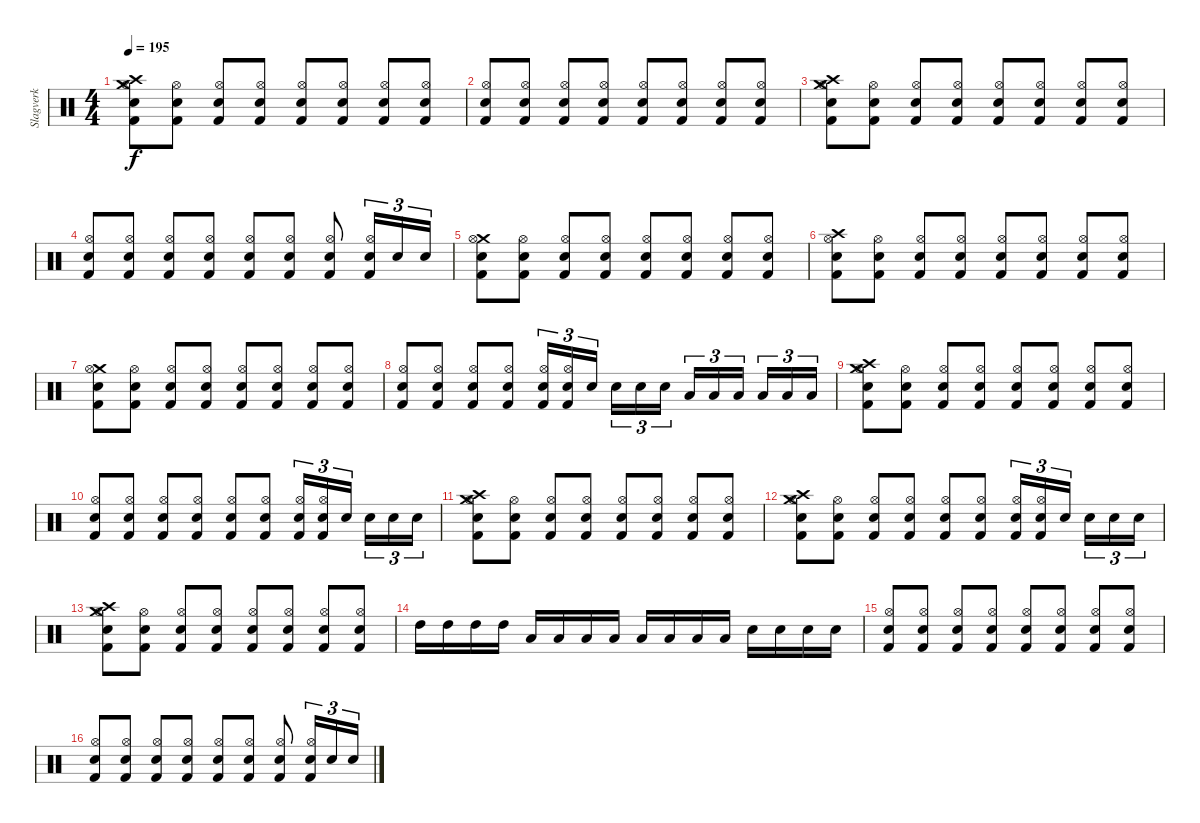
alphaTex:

\track ("Slagverk" "Slagverk") {instrument percussion}
\staff {score}
\articulation defaults
\ts (4 4)
\tempo 195
\clef neutral
\ks c
("Crash medium (hit)" "Crash high (hit)" "Electric Snare (hit)" "Hi-Hat (open)" "Kick (hit) 2").8{dy f} ("Electric Snare (hit)" "Hi-Hat (open)" "Kick (hit) 2").8 ("Electric Snare (hit)" "Hi-Hat (open)" "Kick (hit) 2").8 ("Electric Snare (hit)" "Hi-Hat (open)" "Kick (hit) 2").8 ("Electric Snare (hit)" "Hi-Hat (open)" "Kick (hit) 2").8 ("Electric Snare (hit)" "Hi-Hat (open)" "Kick (hit) 2").8 ("Electric Snare (hit)" "Hi-Hat (open)" "Kick (hit) 2").8 ("Electric Snare (hit)" "Hi-Hat (open)" "Kick (hit) 2").8 |
("Electric Snare (hit)" "Hi-Hat (open)" "Kick (hit) 2").8 ("Electric Snare (hit)" "Hi-Hat (open)" "Kick (hit) 2").8 ("Electric Snare (hit)" "Hi-Hat (open)" "Kick (hit) 2").8 ("Electric Snare (hit)" "Hi-Hat (open)" "Kick (hit) 2").8 ("Electric Snare (hit)" "Hi-Hat (open)" "Kick (hit) 2").8 ("Electric Snare (hit)" "Hi-Hat (open)" "Kick (hit) 2").8 ("Electric Snare (hit)" "Hi-Hat (open)" "Kick (hit) 2").8 ("Electric Snare (hit)" "Hi-Hat (open)" "Kick (hit) 2").8 |
("Crash medium (hit)" "Crash high (hit)" "Electric Snare (hit)" "Hi-Hat (open)" "Kick (hit) 2").8 ("Electric Snare (hit)" "Hi-Hat (open)" "Kick (hit) 2").8 ("Electric Snare (hit)" "Hi-Hat (open)" "Kick (hit) 2").8 ("Electric Snare (hit)" "Hi-Hat (open)" "Kick (hit) 2").8 ("Electric Snare (hit)" "Hi-Hat (open)" "Kick (hit) 2").8 ("Electric Snare (hit)" "Hi-Hat (open)" "Kick (hit) 2").8 ("Electric Snare (hit)" "Hi-Hat (open)" "Kick (hit) 2").8 ("Electric Snare (hit)" "Hi-Hat (open)" "Kick (hit) 2").8 |
("Electric Snare (hit)" "Hi-Hat (open)" "Kick (hit) 2").8 ("Electric Snare (hit)" "Hi-Hat (open)" "Kick (hit) 2").8 ("Electric Snare (hit)" "Hi-Hat (open)" "Kick (hit) 2").8 ("Electric Snare (hit)" "Hi-Hat (open)" "Kick (hit) 2").8 ("Electric Snare (hit)" "Hi-Hat (open)" "Kick (hit) 2").8 ("Electric Snare (hit)" "Hi-Hat (open)" "Kick (hit) 2").8 ("Electric Snare (hit)" "Hi-Hat (open)" "Kick (hit) 2").8 ("Electric Snare (hit)" "Hi-Hat (open)" "Kick (hit) 2").16{tu (3 2)} "Electric Snare (hit)".16{tu (3 2)} "Electric Snare (hit)".16{tu (3 2)} |
("Crash medium (hit)" "Electric Snare (hit)" "Hi-Hat (open)" "Kick (hit) 2").8 ("Electric Snare (hit)" "Hi-Hat (open)" "Kick (hit) 2").8 ("Electric Snare (hit)" "Hi-Hat (open)" "Kick (hit) 2").8 ("Electric Snare (hit)" "Hi-Hat (open)" "Kick (hit) 2").8 ("Electric Snare (hit)" "Hi-Hat (open)" "Kick (hit) 2").8 ("Electric Snare (hit)" "Hi-Hat (open)" "Kick (hit) 2").8 ("Electric Snare (hit)" "Hi-Hat (open)" "Kick (hit) 2").8 ("Electric Snare (hit)" "Hi-Hat (open)" "Kick (hit) 2").8 |
("Crash high (hit)" "Electric Snare (hit)" "Hi-Hat (open)" "Kick (hit) 2").8 ("Electric Snare (hit)" "Hi-Hat (open)" "Kick (hit) 2").8 ("Electric Snare (hit)" "Hi-Hat (open)" "Kick (hit) 2").8 ("Electric Snare (hit)" "Hi-Hat (open)" "Kick (hit) 2").8 ("Electric Snare (hit)" "Hi-Hat (open)" "Kick (hit) 2").8 ("Electric Snare (hit)" "Hi-Hat (open)" "Kick (hit) 2").8 ("Electric Snare (hit)" "Hi-Hat (open)" "Kick (hit) 2").8 ("Electric Snare (hit)" "Hi-Hat (open)" "Kick (hit) 2").8 |
("Crash medium (hit)" "Electric Snare (hit)" "Hi-Hat (open)" "Kick (hit) 2").8 ("Electric Snare (hit)" "Hi-Hat (open)" "Kick (hit) 2").8 ("Electric Snare (hit)" "Hi-Hat (open)" "Kick (hit) 2").8 ("Electric Snare (hit)" "Hi-Hat (open)" "Kick (hit) 2").8 ("Electric Snare (hit)" "Hi-Hat (open)" "Kick (hit) 2").8 ("Electric Snare (hit)" "Hi-Hat (open)" "Kick (hit) 2").8 ("Electric Snare (hit)" "Hi-Hat (open)" "Kick (hit) 2").8 ("Electric Snare (hit)" "Hi-Hat (open)" "Kick (hit) 2").8 |
("Electric Snare (hit)" "Hi-Hat (open)" "Kick (hit) 2").8 ("Electric Snare (hit)" "Hi-Hat (open)" "Kick (hit) 2").8 ("Electric Snare (hit)" "Hi-Hat (open)" "Kick (hit) 2").8 ("Electric Snare (hit)" "Hi-Hat (open)" "Kick (hit) 2").8 ("Electric Snare (hit)" "Hi-Hat (open)" "Kick (hit) 2").16{tu (3 2)} ("Electric Snare (hit)" "Hi-Hat (open)" "Kick (hit) 2").16{tu (3 2)} "Electric Snare (hit)".16{tu (3 2)} "Electric Snare (hit)".16{tu (3 2)} "Electric Snare (hit)".16{tu (3 2)} "Electric Snare (hit)".16{tu (3 2)} "Low Tom (hit)".16{tu (3 2)} "Low Tom (hit)".16{tu (3 2)} "Low Tom (hit)".16{tu (3 2)} "Low Tom (hit)".16{tu (3 2)} "Low Tom (hit)".16{tu (3 2)} "Low Tom (hit)".16{tu (3 2)} |
("Crash medium (hit)" "Crash high (hit)" "Electric Snare (hit)" "Hi-Hat (open)" "Kick (hit) 2").8 ("Electric Snare (hit)" "Hi-Hat (open)" "Kick (hit) 2").8 ("Electric Snare (hit)" "Hi-Hat (open)" "Kick (hit) 2").8 ("Electric Snare (hit)" "Hi-Hat (open)" "Kick (hit) 2").8 ("Electric Snare (hit)" "Hi-Hat (open)" "Kick (hit) 2").8 ("Electric Snare (hit)" "Hi-Hat (open)" "Kick (hit) 2").8 ("Electric Snare (hit)" "Hi-Hat (open)" "Kick (hit) 2").8 ("Electric Snare (hit)" "Hi-Hat (open)" "Kick (hit) 2").8 |
("Electric Snare (hit)" "Hi-Hat (open)" "Kick (hit) 2").8 ("Electric Snare (hit)" "Hi-Hat (open)" "Kick (hit) 2").8 ("Electric Snare (hit)" "Hi-Hat (open)" "Kick (hit) 2").8 ("Electric Snare (hit)" "Hi-Hat (open)" "Kick (hit) 2").8 ("Electric Snare (hit)" "Hi-Hat (open)" "Kick (hit) 2").8 ("Electric Snare (hit)" "Hi-Hat (open)" "Kick (hit) 2").8 ("Electric Snare (hit)" "Hi-Hat (open)" "Kick (hit) 2").16{tu (3 2)} ("Electric Snare (hit)" "Hi-Hat (open)" "Kick (hit) 2").16{tu (3 2)} "Electric Snare (hit)".16{tu (3 2)} "Electric Snare (hit)".16{tu (3 2)} "Electric Snare (hit)".16{tu (3 2)} "Electric Snare (hit)".16{tu (3 2)} |
("Crash medium (hit)" "Crash high (hit)" "Electric Snare (hit)" "Hi-Hat (open)" "Kick (hit) 2").8 ("Electric Snare (hit)" "Hi-Hat (open)" "Kick (hit) 2").8 ("Electric Snare (hit)" "Hi-Hat (open)" "Kick (hit) 2").8 ("Electric Snare (hit)" "Hi-Hat (open)" "Kick (hit) 2").8 ("Electric Snare (hit)" "Hi-Hat (open)" "Kick (hit) 2").8 ("Electric Snare (hit)" "Hi-Hat (open)" "Kick (hit) 2").8 ("Electric Snare (hit)" "Hi-Hat (open)" "Kick (hit) 2").8 ("Electric Snare (hit)" "Hi-Hat (open)" "Kick (hit) 2").8 |
("Crash medium (hit)" "Crash high (hit)" "Electric Snare (hit)" "Hi-Hat (open)" "Kick (hit) 2").8 ("Electric Snare (hit)" "Hi-Hat (open)" "Kick (hit) 2").8 ("Electric Snare (hit)" "Hi-Hat (open)" "Kick (hit) 2").8 ("Electric Snare (hit)" "Hi-Hat (open)" "Kick (hit) 2").8 ("Electric Snare (hit)" "Hi-Hat (open)" "Kick (hit) 2").8 ("Electric Snare (hit)" "Hi-Hat (open)" "Kick (hit) 2").8 ("Electric Snare (hit)" "Hi-Hat (open)" "Kick (hit) 2").16{tu (3 2)} ("Electric Snare (hit)" "Hi-Hat (open)" "Kick (hit) 2").16{tu (3 2)} "Electric Snare (hit)".16{tu (3 2)} "Electric Snare (hit)".16{tu (3 2)} "Electric Snare (hit)".16{tu (3 2)} "Electric Snare (hit)".16{tu (3 2)} |
("Crash medium (hit)" "Crash high (hit)" "Electric Snare (hit)" "Hi-Hat (open)" "Kick (hit) 2").8 ("Electric Snare (hit)" "Hi-Hat (open)" "Kick (hit) 2").8 ("Electric Snare (hit)" "Hi-Hat (open)" "Kick (hit) 2").8 ("Electric Snare (hit)" "Hi-Hat (open)" "Kick (hit) 2").8 ("Electric Snare (hit)" "Hi-Hat (open)" "Kick (hit) 2").8 ("Electric Snare (hit)" "Hi-Hat (open)" "Kick (hit) 2").8 ("Electric Snare (hit)" "Hi-Hat (open)" "Kick (hit) 2").8 ("Electric Snare (hit)" "Hi-Hat (open)" "Kick (hit) 2").8 |
"High Tom (hit)".16 "High Tom (hit)".16 "High Tom (hit)".16 "High Tom (hit)".16 "Low Tom (hit)".16 "Low Tom (hit)".16 "Low Tom (hit)".16 "Low Tom (hit)".16 "Low Floor Tom (hit)".16 "Low Floor Tom (hit)".16 "Low Floor Tom (hit)".16 "Low Floor Tom (hit)".16 "Electric Snare (hit)".16 "Electric Snare (hit)".16 "Electric Snare (hit)".16 "Electric Snare (hit)".16 |
("Electric Snare (hit)" "Hi-Hat (open)" "Kick (hit) 2").8 ("Electric Snare (hit)" "Hi-Hat (open)" "Kick (hit) 2").8 ("Electric Snare (hit)" "Hi-Hat (open)" "Kick (hit) 2").8 ("Electric Snare (hit)" "Hi-Hat (open)" "Kick (hit) 2").8 ("Electric Snare (hit)" "Hi-Hat (open)" "Kick (hit) 2").8 ("Electric Snare (hit)" "Hi-Hat (open)" "Kick (hit) 2").8 ("Electric Snare (hit)" "Hi-Hat (open)" "Kick (hit) 2").8 ("Electric Snare (hit)" "Hi-Hat (open)" "Kick (hit) 2").8 |
("Electric Snare (hit)" "Hi-Hat (open)" "Kick (hit) 2").8 ("Electric Snare (hit)" "Hi-Hat (open)" "Kick (hit) 2").8 ("Electric Snare (hit)" "Hi-Hat (open)" "Kick (hit) 2").8 ("Electric Snare (hit)" "Hi-Hat (open)" "Kick (hit) 2").8 ("Electric Snare (hit)" "Hi-Hat (open)" "Kick (hit) 2").8 ("Electric Snare (hit)" "Hi-Hat (open)" "Kick (hit) 2").8 ("Electric Snare (hit)" "Hi-Hat (open)" "Kick (hit) 2").8 ("Electric Snare (hit)" "Hi-Hat (open)" "Kick (hit) 2").16{tu (3 2)} "Electric Snare (hit)".16{tu (3 2)} "Electric Snare (hit)".16{tu (3 2)}
